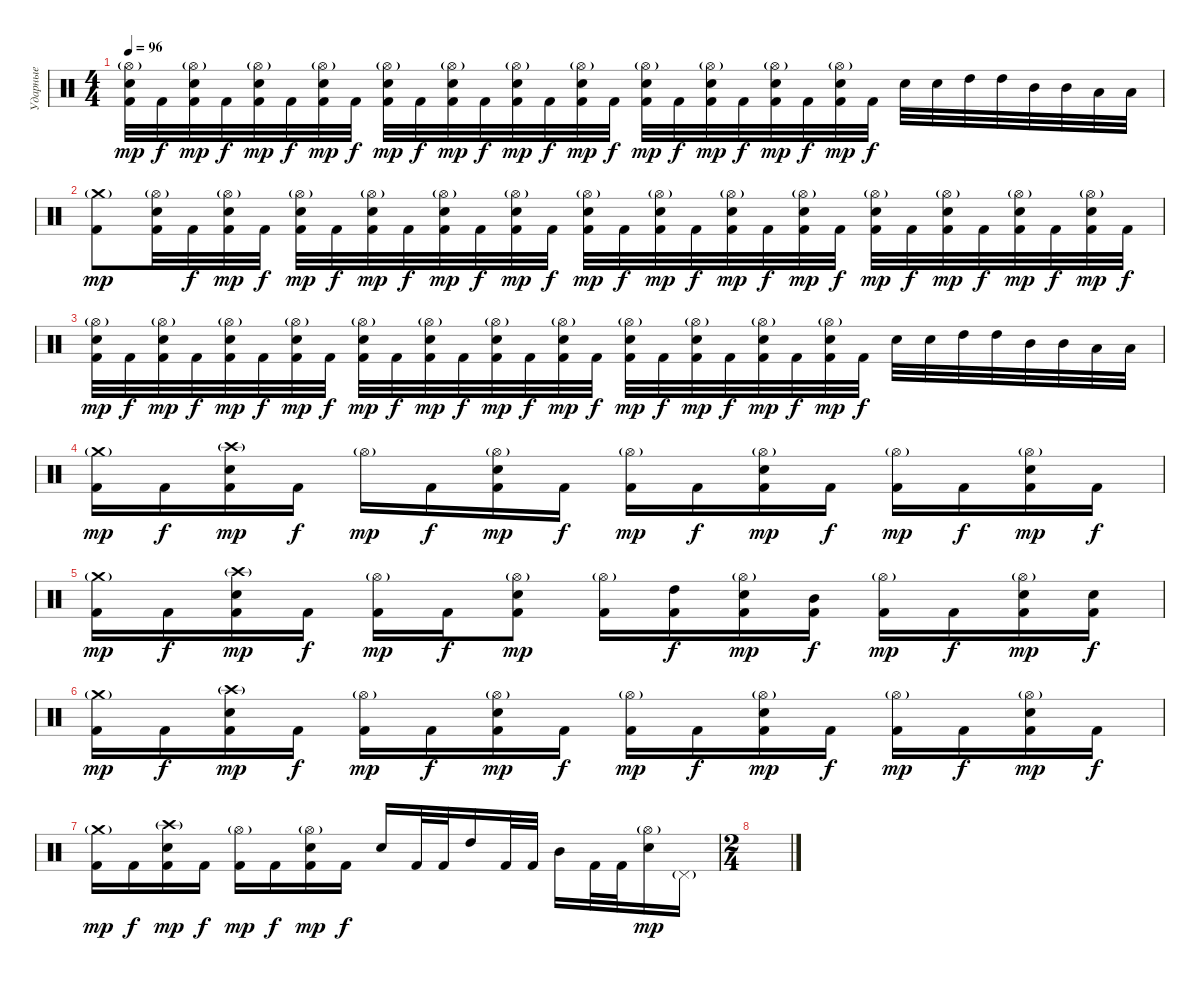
\track ("Ударные" "Ударные") {instrument percussion}
\staff {score}
\articulation defaults
\ts (4 4)
\tempo 96
\clef neutral
\ks c
("Hi-Hat (open)"{g} "Electric Snare (hit)" "Kick (hit) 2").32{dy mp} "Kick (hit) 2".32{dy f} ("Hi-Hat (open)"{g} "Electric Snare (hit)" "Kick (hit) 2").32{dy mp} "Kick (hit) 2".32{dy f} ("Hi-Hat (open)"{g} "Electric Snare (hit)" "Kick (hit) 2").32{dy mp} "Kick (hit) 2".32{dy f} ("Hi-Hat (open)"{g} "Electric Snare (hit)" "Kick (hit) 2").32{dy mp} "Kick (hit) 2".32{dy f} ("Hi-Hat (open)"{g} "Electric Snare (hit)" "Kick (hit) 2").32{dy mp} "Kick (hit) 2".32{dy f} ("Hi-Hat (open)"{g} "Electric Snare (hit)" "Kick (hit) 2").32{dy mp} "Kick (hit) 2".32{dy f} ("Hi-Hat (open)"{g} "Electric Snare (hit)" "Kick (hit) 2").32{dy mp} "Kick (hit) 2".32{dy f} ("Hi-Hat (open)"{g} "Electric Snare (hit)" "Kick (hit) 2").32{dy mp} "Kick (hit) 2".32{dy f} ("Hi-Hat (open)"{g} "Electric Snare (hit)" "Kick (hit) 2").32{dy mp} "Kick (hit) 2".32{dy f} ("Hi-Hat (open)"{g} "Electric Snare (hit)" "Kick (hit) 2").32{dy mp} "Kick (hit) 2".32{dy f} ("Hi-Hat (open)"{g} "Electric Snare (hit)" "Kick (hit) 2").32{dy mp} "Kick (hit) 2".32{dy f} ("Hi-Hat (open)"{g} "Electric Snare (hit)" "Kick (hit) 2").32{dy mp} "Kick (hit) 2".32{dy f} "Electric Snare (hit)".32 "Electric Snare (hit)".32 "High Tom (hit)".32 "High Tom (hit)".32 "Mid Tom (hit)".32 "Mid Tom (hit)".32 "Low Tom (hit)".32 "Low Tom (hit)".32 |
("Crash medium (hit)"{g} "Kick (hit) 2").8{dy mp} ("Hi-Hat (open)"{g} "Electric Snare (hit)" "Kick (hit) 2").32 "Kick (hit) 2".32{dy f} ("Hi-Hat (open)"{g} "Electric Snare (hit)" "Kick (hit) 2").32{dy mp} "Kick (hit) 2".32{dy f} ("Hi-Hat (open)"{g} "Electric Snare (hit)" "Kick (hit) 2").32{dy mp} "Kick (hit) 2".32{dy f} ("Hi-Hat (open)"{g} "Electric Snare (hit)" "Kick (hit) 2").32{dy mp} "Kick (hit) 2".32{dy f} ("Hi-Hat (open)"{g} "Electric Snare (hit)" "Kick (hit) 2").32{dy mp} "Kick (hit) 2".32{dy f} ("Hi-Hat (open)"{g} "Electric Snare (hit)" "Kick (hit) 2").32{dy mp} "Kick (hit) 2".32{dy f} ("Hi-Hat (open)"{g} "Electric Snare (hit)" "Kick (hit) 2").32{dy mp} "Kick (hit) 2".32{dy f} ("Hi-Hat (open)"{g} "Electric Snare (hit)" "Kick (hit) 2").32{dy mp} "Kick (hit) 2".32{dy f} ("Hi-Hat (open)"{g} "Electric Snare (hit)" "Kick (hit) 2").32{dy mp} "Kick (hit) 2".32{dy f} ("Hi-Hat (open)"{g} "Electric Snare (hit)" "Kick (hit) 2").32{dy mp} "Kick (hit) 2".32{dy f} ("Hi-Hat (open)"{g} "Electric Snare (hit)" "Kick (hit) 2").32{dy mp} "Kick (hit) 2".32{dy f} ("Hi-Hat (open)"{g} "Electric Snare (hit)" "Kick (hit) 2").32{dy mp} "Kick (hit) 2".32{dy f} ("Hi-Hat (open)"{g} "Electric Snare (hit)" "Kick (hit) 2").32{dy mp} "Kick (hit) 2".32{dy f} ("Hi-Hat (open)"{g} "Electric Snare (hit)" "Kick (hit) 2").32{dy mp} "Kick (hit) 2".32{dy f} |
("Hi-Hat (open)"{g} "Electric Snare (hit)" "Kick (hit) 2").32{dy mp} "Kick (hit) 2".32{dy f} ("Hi-Hat (open)"{g} "Electric Snare (hit)" "Kick (hit) 2").32{dy mp} "Kick (hit) 2".32{dy f} ("Hi-Hat (open)"{g} "Electric Snare (hit)" "Kick (hit) 2").32{dy mp} "Kick (hit) 2".32{dy f} ("Hi-Hat (open)"{g} "Electric Snare (hit)" "Kick (hit) 2").32{dy mp} "Kick (hit) 2".32{dy f} ("Hi-Hat (open)"{g} "Electric Snare (hit)" "Kick (hit) 2").32{dy mp} "Kick (hit) 2".32{dy f} ("Hi-Hat (open)"{g} "Electric Snare (hit)" "Kick (hit) 2").32{dy mp} "Kick (hit) 2".32{dy f} ("Hi-Hat (open)"{g} "Electric Snare (hit)" "Kick (hit) 2").32{dy mp} "Kick (hit) 2".32{dy f} ("Hi-Hat (open)"{g} "Electric Snare (hit)" "Kick (hit) 2").32{dy mp} "Kick (hit) 2".32{dy f} ("Hi-Hat (open)"{g} "Electric Snare (hit)" "Kick (hit) 2").32{dy mp} "Kick (hit) 2".32{dy f} ("Hi-Hat (open)"{g} "Electric Snare (hit)" "Kick (hit) 2").32{dy mp} "Kick (hit) 2".32{dy f} ("Hi-Hat (open)"{g} "Electric Snare (hit)" "Kick (hit) 2").32{dy mp} "Kick (hit) 2".32{dy f} ("Hi-Hat (open)"{g} "Electric Snare (hit)" "Kick (hit) 2").32{dy mp} "Kick (hit) 2".32{dy f} "Electric Snare (hit)".32 "Electric Snare (hit)".32 "High Tom (hit)".32 "High Tom (hit)".32 "Mid Tom (hit)".32 "Mid Tom (hit)".32 "Low Tom (hit)".32 "Low Tom (hit)".32 |
("Crash medium (hit)"{g} "Kick (hit) 2").16{dy mp} "Kick (hit) 2".16{dy f} ("Crash high (hit)"{g} "Electric Snare (hit)" "Kick (hit) 2").16{dy mp} "Kick (hit) 2".16{dy f} "Hi-Hat (open)"{g}.16{dy mp} "Kick (hit) 2".16{dy f} ("Hi-Hat (open)"{g} "Electric Snare (hit)" "Kick (hit) 2").16{dy mp} "Kick (hit) 2".16{dy f} ("Hi-Hat (open)"{g} "Kick (hit) 2").16{dy mp} "Kick (hit) 2".16{dy f} ("Hi-Hat (open)"{g} "Electric Snare (hit)" "Kick (hit) 2").16{dy mp} "Kick (hit) 2".16{dy f} ("Hi-Hat (open)"{g} "Kick (hit) 2").16{dy mp} "Kick (hit) 2".16{dy f} ("Hi-Hat (open)"{g} "Electric Snare (hit)" "Kick (hit) 2").16{dy mp} "Kick (hit) 2".16{dy f} |
("Crash medium (hit)"{g} "Kick (hit) 2").16{dy mp} "Kick (hit) 2".16{dy f} ("Crash high (hit)"{g} "Electric Snare (hit)" "Kick (hit) 2").16{dy mp} "Kick (hit) 2".16{dy f} ("Hi-Hat (open)"{g} "Kick (hit) 2").16{dy mp} "Kick (hit) 2".16{dy f} ("Hi-Hat (open)"{g} "Electric Snare (hit)" "Kick (hit) 2").8{dy mp} ("Hi-Hat (open)"{g} "Kick (hit) 2").16 ("High Tom (hit)" "Kick (hit) 2").16{dy f} ("Hi-Hat (open)"{g} "Electric Snare (hit)" "Kick (hit) 2").16{dy mp} ("Mid Tom (hit)" "Kick (hit) 2").16{dy f} ("Hi-Hat (open)"{g} "Kick (hit) 2").16{dy mp} "Kick (hit) 2".16{dy f} ("Hi-Hat (open)"{g} "Electric Snare (hit)" "Kick (hit) 2").16{dy mp} ("Electric Snare (hit)" "Kick (hit) 2").16{dy f} |
("Crash medium (hit)"{g} "Kick (hit) 2").16{dy mp} "Kick (hit) 2".16{dy f} ("Crash high (hit)"{g} "Electric Snare (hit)" "Kick (hit) 2").16{dy mp} "Kick (hit) 2".16{dy f} ("Hi-Hat (open)"{g} "Kick (hit) 2").16{dy mp} "Kick (hit) 2".16{dy f} ("Hi-Hat (open)"{g} "Electric Snare (hit)" "Kick (hit) 2").16{dy mp} "Kick (hit) 2".16{dy f} ("Hi-Hat (open)"{g} "Kick (hit) 2").16{dy mp} "Kick (hit) 2".16{dy f} ("Hi-Hat (open)"{g} "Electric Snare (hit)" "Kick (hit) 2").16{dy mp} "Kick (hit) 2".16{dy f} ("Hi-Hat (open)"{g} "Kick (hit) 2").16{dy mp} "Kick (hit) 2".16{dy f} ("Hi-Hat (open)"{g} "Electric Snare (hit)" "Kick (hit) 2").16{dy mp} "Kick (hit) 2".16{dy f} |
("Crash medium (hit)"{g} "Kick (hit) 2").16{dy mp} "Kick (hit) 2".16{dy f} ("Crash high (hit)"{g} "Electric Snare (hit)" "Kick (hit) 2").16{dy mp} "Kick (hit) 2".16{dy f} ("Hi-Hat (open)"{g} "Kick (hit) 2").16{dy mp} "Kick (hit) 2".16{dy f} ("Hi-Hat (open)"{g} "Electric Snare (hit)" "Kick (hit) 2").16{dy mp} "Kick (hit) 2".16{dy f} "Electric Snare (hit)".16 "Kick (hit) 2".32 "Kick (hit) 2".32 "High Tom (hit)".16 "Kick (hit) 2".32 "Kick (hit) 2".32 "Mid Tom (hit)".16 "Kick (hit) 2".32 "Kick (hit) 2".32 ("Hi-Hat (open)"{g} "Electric Snare (hit)").16{dy mp} "Pedal Hi-Hat (hit)"{g}.16{volume 4} |
\ts (2 4)
